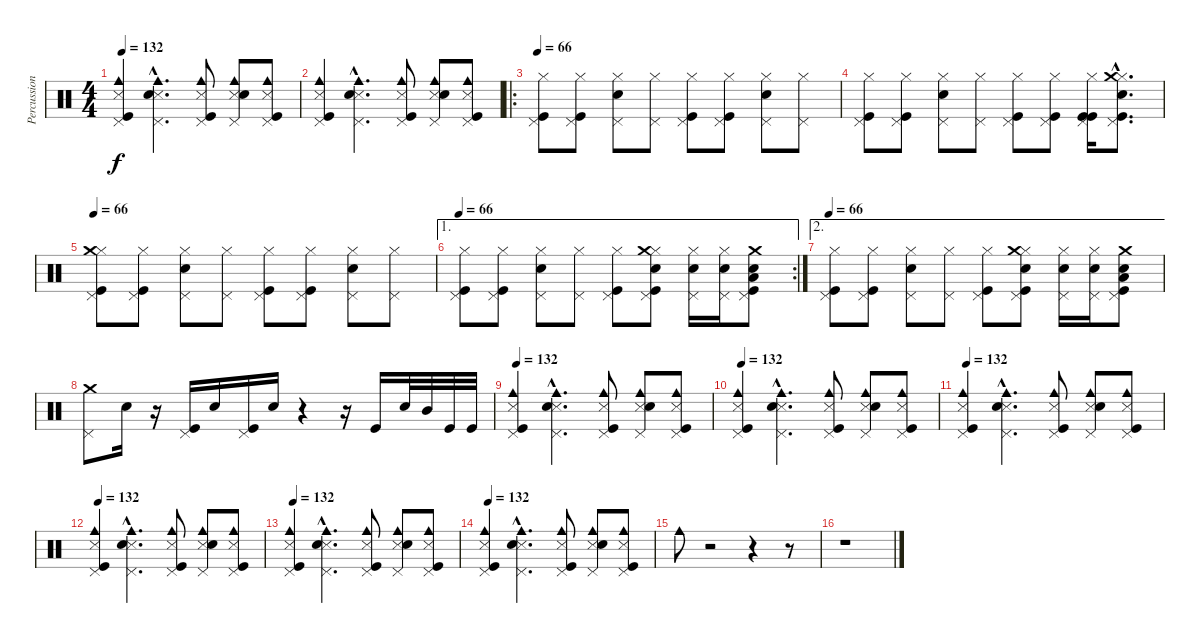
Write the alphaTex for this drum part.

\track ("Percussion" "Percussion") {instrument percussion}
\staff {score}
\articulation defaults
\ts (4 4)
\tempo 132
\clef neutral
\ks c
("Snare (side stick) 3" "Pedal Hi-Hat (hit)" "Cowbell medium (hit)" "Kick (hit)").4{dy f} ("Snare (side stick) 3"{hac} "Pedal Hi-Hat (hit)"{hac} "Cowbell medium (hit)"{hac} "Electric Snare (hit)"{hac}).4{d} ("Snare (side stick) 3" "Pedal Hi-Hat (hit)" "Cowbell medium (hit)" "Kick (hit)").8 ("Snare (side stick) 3" "Pedal Hi-Hat (hit)" "Cowbell medium (hit)" "Electric Snare (hit)").8 ("Snare (side stick) 3" "Pedal Hi-Hat (hit)" "Cowbell medium (hit)" "Kick (hit)").8 |
("Snare (side stick) 3" "Pedal Hi-Hat (hit)" "Cowbell medium (hit)" "Kick (hit)").4 ("Snare (side stick) 3"{hac} "Pedal Hi-Hat (hit)"{hac} "Cowbell medium (hit)"{hac} "Electric Snare (hit)"{hac}).4{d} ("Snare (side stick) 3" "Pedal Hi-Hat (hit)" "Cowbell medium (hit)" "Kick (hit)").8 ("Snare (side stick) 3" "Pedal Hi-Hat (hit)" "Cowbell medium (hit)" "Electric Snare (hit)").8 ("Snare (side stick) 3" "Pedal Hi-Hat (hit)" "Cowbell medium (hit)" "Kick (hit)").8 |
\ro
\tempo 66
("Pedal Hi-Hat (hit)" "Hi-Hat (closed)" "Kick (hit)").8 ("Pedal Hi-Hat (hit)" "Hi-Hat (closed)" "Kick (hit)").8 ("Pedal Hi-Hat (hit)" "Hi-Hat (closed)" "Electric Snare (hit)").8 ("Pedal Hi-Hat (hit)" "Hi-Hat (closed)").8 ("Pedal Hi-Hat (hit)" "Hi-Hat (closed)" "Kick (hit)").8 ("Pedal Hi-Hat (hit)" "Hi-Hat (closed)" "Kick (hit)").8 ("Pedal Hi-Hat (hit)" "Hi-Hat (closed)" "Electric Snare (hit)").8 ("Pedal Hi-Hat (hit)" "Hi-Hat (closed)").8 |
("Pedal Hi-Hat (hit)" "Hi-Hat (closed)" "Kick (hit)").8 ("Pedal Hi-Hat (hit)" "Hi-Hat (closed)" "Kick (hit)").8 ("Pedal Hi-Hat (hit)" "Hi-Hat (closed)" "Electric Snare (hit)").8 ("Pedal Hi-Hat (hit)" "Hi-Hat (closed)").8 ("Pedal Hi-Hat (hit)" "Hi-Hat (closed)" "Kick (hit)").8 ("Pedal Hi-Hat (hit)" "Hi-Hat (closed)" "Kick (hit)").8 ("Pedal Hi-Hat (hit)" "Hi-Hat (closed)" "Kick (hit)" "Kick (hit)").16 ("Pedal Hi-Hat (hit)"{hac} "Hi-Hat (closed)"{hac} "Crash medium (hit)"{hac} "Electric Snare (hit)"{hac} "Kick (hit)"{hac}).8{d} |
\tempo 84
\tempo 66
("Pedal Hi-Hat (hit)" "Hi-Hat (closed)" "Crash medium (hit)" "Kick (hit)").8 ("Pedal Hi-Hat (hit)" "Hi-Hat (closed)" "Kick (hit)").8 ("Pedal Hi-Hat (hit)" "Hi-Hat (closed)" "Electric Snare (hit)").8 ("Pedal Hi-Hat (hit)" "Hi-Hat (closed)").8 ("Pedal Hi-Hat (hit)" "Hi-Hat (closed)" "Kick (hit)").8 ("Pedal Hi-Hat (hit)" "Hi-Hat (closed)" "Kick (hit)").8 ("Pedal Hi-Hat (hit)" "Hi-Hat (closed)" "Electric Snare (hit)").8 ("Pedal Hi-Hat (hit)" "Hi-Hat (closed)").8 |
\ae 1
\rc 2
\tempo 66
("Pedal Hi-Hat (hit)" "Hi-Hat (closed)" "Kick (hit)").8 ("Pedal Hi-Hat (hit)" "Hi-Hat (closed)" "Kick (hit)").8 ("Pedal Hi-Hat (hit)" "Hi-Hat (closed)" "Electric Snare (hit)").8 ("Pedal Hi-Hat (hit)" "Hi-Hat (closed)").8 ("Pedal Hi-Hat (hit)" "Hi-Hat (closed)" "Kick (hit)").8 ("Pedal Hi-Hat (hit)" "Hi-Hat (closed)" "Crash medium (hit)" "Electric Snare (hit)" "Kick (hit)").8 ("Pedal Hi-Hat (hit)" "Hi-Hat (closed)" "Electric Snare (hit)").16 ("Pedal Hi-Hat (hit)" "Hi-Hat (closed)" "Electric Snare (hit)").16 ("Pedal Hi-Hat (hit)" "Low Tom (hit)" "Crash medium (hit)" "Electric Snare (hit)" "Kick (hit)").8 |
\ae 2
\tempo 66
("Pedal Hi-Hat (hit)" "Hi-Hat (closed)" "Kick (hit)").8 ("Pedal Hi-Hat (hit)" "Hi-Hat (closed)" "Kick (hit)").8 ("Pedal Hi-Hat (hit)" "Hi-Hat (closed)" "Electric Snare (hit)").8 ("Pedal Hi-Hat (hit)" "Hi-Hat (closed)").8 ("Pedal Hi-Hat (hit)" "Hi-Hat (closed)" "Kick (hit)").8 ("Pedal Hi-Hat (hit)" "Hi-Hat (closed)" "Crash medium (hit)" "Electric Snare (hit)" "Kick (hit)").8 ("Pedal Hi-Hat (hit)" "Hi-Hat (closed)" "Electric Snare (hit)").16 ("Pedal Hi-Hat (hit)" "Hi-Hat (closed)" "Electric Snare (hit)").16 ("Pedal Hi-Hat (hit)" "Low Tom (hit)" "Crash medium (hit)" "Electric Snare (hit)" "Kick (hit)").8 |
("Pedal Hi-Hat (hit)" "Crash medium (hit)").8 "Electric Snare (hit)".16 r.16 ("Pedal Hi-Hat (hit)" "Kick (hit)").16 "Electric Snare (hit)".16 ("Pedal Hi-Hat (hit)" "Kick (hit)").16 "Electric Snare (hit)".16 r.4 r.16 "Kick (hit)".16 "Snare (hit) 2".32 "Mid Tom (hit)".32 "Kick (hit)".32 "Kick (hit)".32 |
\tempo 132
("Snare (side stick) 3" "Pedal Hi-Hat (hit)" "Cowbell medium (hit)" "Kick (hit)").4 ("Snare (side stick) 3"{hac} "Pedal Hi-Hat (hit)"{hac} "Cowbell medium (hit)"{hac} "Electric Snare (hit)"{hac}).4{d} ("Snare (side stick) 3" "Pedal Hi-Hat (hit)" "Cowbell medium (hit)" "Kick (hit)").8 ("Snare (side stick) 3" "Pedal Hi-Hat (hit)" "Cowbell medium (hit)" "Electric Snare (hit)").8 ("Snare (side stick) 3" "Pedal Hi-Hat (hit)" "Cowbell medium (hit)" "Kick (hit)").8 |
\tempo 132
("Snare (side stick) 3" "Pedal Hi-Hat (hit)" "Cowbell medium (hit)" "Kick (hit)").4 ("Snare (side stick) 3"{hac} "Pedal Hi-Hat (hit)"{hac} "Cowbell medium (hit)"{hac} "Electric Snare (hit)"{hac}).4{d} ("Snare (side stick) 3" "Pedal Hi-Hat (hit)" "Cowbell medium (hit)" "Kick (hit)").8 ("Snare (side stick) 3" "Pedal Hi-Hat (hit)" "Cowbell medium (hit)" "Electric Snare (hit)").8 ("Snare (side stick) 3" "Pedal Hi-Hat (hit)" "Cowbell medium (hit)" "Kick (hit)").8 |
\tempo 132
("Snare (side stick) 3" "Pedal Hi-Hat (hit)" "Cowbell medium (hit)" "Kick (hit)").4 ("Snare (side stick) 3"{hac} "Pedal Hi-Hat (hit)"{hac} "Cowbell medium (hit)"{hac} "Electric Snare (hit)"{hac}).4{d} ("Snare (side stick) 3" "Pedal Hi-Hat (hit)" "Cowbell medium (hit)" "Kick (hit)").8 ("Snare (side stick) 3" "Pedal Hi-Hat (hit)" "Cowbell medium (hit)" "Electric Snare (hit)").8 ("Snare (side stick) 3" "Pedal Hi-Hat (hit)" "Cowbell medium (hit)" "Kick (hit)").8 |
\tempo 132
("Snare (side stick) 3" "Pedal Hi-Hat (hit)" "Cowbell medium (hit)" "Kick (hit)").4 ("Snare (side stick) 3"{hac} "Pedal Hi-Hat (hit)"{hac} "Cowbell medium (hit)"{hac} "Electric Snare (hit)"{hac}).4{d} ("Snare (side stick) 3" "Pedal Hi-Hat (hit)" "Cowbell medium (hit)" "Kick (hit)").8 ("Snare (side stick) 3" "Pedal Hi-Hat (hit)" "Cowbell medium (hit)" "Electric Snare (hit)").8 ("Snare (side stick) 3" "Pedal Hi-Hat (hit)" "Cowbell medium (hit)" "Kick (hit)").8 |
\tempo 132
("Snare (side stick) 3" "Pedal Hi-Hat (hit)" "Cowbell medium (hit)" "Kick (hit)").4 ("Snare (side stick) 3"{hac} "Pedal Hi-Hat (hit)"{hac} "Cowbell medium (hit)"{hac} "Electric Snare (hit)"{hac}).4{d} ("Snare (side stick) 3" "Pedal Hi-Hat (hit)" "Cowbell medium (hit)" "Kick (hit)").8 ("Snare (side stick) 3" "Pedal Hi-Hat (hit)" "Cowbell medium (hit)" "Electric Snare (hit)").8 ("Snare (side stick) 3" "Pedal Hi-Hat (hit)" "Cowbell medium (hit)" "Kick (hit)").8 |
\tempo 132
("Snare (side stick) 3" "Pedal Hi-Hat (hit)" "Cowbell medium (hit)" "Kick (hit)").4 ("Snare (side stick) 3"{hac} "Pedal Hi-Hat (hit)"{hac} "Cowbell medium (hit)"{hac} "Electric Snare (hit)"{hac}).4{d} ("Snare (side stick) 3" "Pedal Hi-Hat (hit)" "Cowbell medium (hit)" "Kick (hit)").8 ("Snare (side stick) 3" "Pedal Hi-Hat (hit)" "Cowbell medium (hit)" "Electric Snare (hit)").8 ("Snare (side stick) 3" "Pedal Hi-Hat (hit)" "Cowbell medium (hit)" "Kick (hit)").8 |
"Cowbell medium (hit)".8 r.2 r.4 r.8 |
r.1
